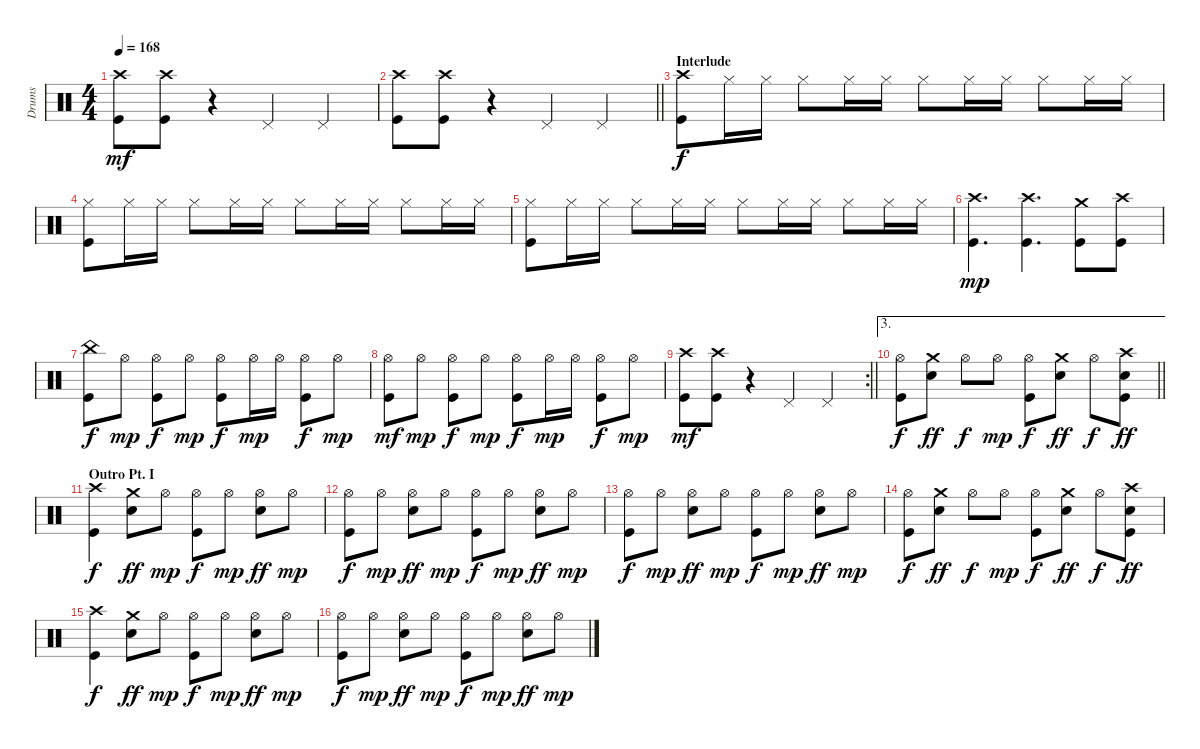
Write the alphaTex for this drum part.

\track ("Drums" "Drums") {instrument percussion}
\staff {score}
\articulation defaults
\ts (4 4)
\tempo 168
\clef neutral
\ks c
("Crash high (hit)" "Kick (hit)").8{dy mf} ("Crash high (hit)" "Kick (hit)").8 r.4 "Pedal Hi-Hat (hit)".4 "Pedal Hi-Hat (hit)".4 |
\barLineRight lightlight
("Crash high (hit)" "Kick (hit)").8 ("Crash high (hit)" "Kick (hit)").8 r.4 "Pedal Hi-Hat (hit)".4 "Pedal Hi-Hat (hit)".4 |
\section ("" "Interlude")
("Crash high (hit)" "Kick (hit)").8{dy f} "Hi-Hat (closed)".16 "Hi-Hat (closed)".16 "Hi-Hat (closed)".8 "Hi-Hat (closed)".16 "Hi-Hat (closed)".16 "Hi-Hat (closed)".8 "Hi-Hat (closed)".16 "Hi-Hat (closed)".16 "Hi-Hat (closed)".8 "Hi-Hat (closed)".16 "Hi-Hat (closed)".16 |
("Hi-Hat (closed)" "Kick (hit)").8 "Hi-Hat (closed)".16 "Hi-Hat (closed)".16 "Hi-Hat (closed)".8 "Hi-Hat (closed)".16 "Hi-Hat (closed)".16 "Hi-Hat (closed)".8 "Hi-Hat (closed)".16 "Hi-Hat (closed)".16 "Hi-Hat (closed)".8 "Hi-Hat (closed)".16 "Hi-Hat (closed)".16 |
("Hi-Hat (closed)" "Kick (hit)").8 "Hi-Hat (closed)".16 "Hi-Hat (closed)".16 "Hi-Hat (closed)".8 "Hi-Hat (closed)".16 "Hi-Hat (closed)".16 "Hi-Hat (closed)".8 "Hi-Hat (closed)".16 "Hi-Hat (closed)".16 "Hi-Hat (closed)".8 "Hi-Hat (closed)".16 "Hi-Hat (closed)".16 |
("Crash high (hit)" "Kick (hit)").4{d dy mp} ("Crash high (hit)" "Kick (hit)").4{d} ("Crash medium (hit)" "Kick (hit)").8 ("Crash high (hit)" "Kick (hit)").8 |
("China (hit)" "Kick (hit)").8{dy f} "Hi-Hat (open)".8{dy mp} ("Hi-Hat (open)" "Kick (hit)").8{dy f} "Hi-Hat (open)".8{dy mp} ("Hi-Hat (open)" "Kick (hit)").8{dy f} "Hi-Hat (open)".16{dy mp} "Hi-Hat (open)".16 ("Hi-Hat (open)" "Kick (hit)").8{dy f} "Hi-Hat (open)".8{dy mp} |
("Hi-Hat (open)" "Kick (hit)").8{dy mf} "Hi-Hat (open)".8{dy mp} ("Hi-Hat (open)" "Kick (hit)").8{dy f} "Hi-Hat (open)".8{dy mp} ("Hi-Hat (open)" "Kick (hit)").8{dy f} "Hi-Hat (open)".16{dy mp} "Hi-Hat (open)".16 ("Hi-Hat (open)" "Kick (hit)").8{dy f} "Hi-Hat (open)".8{dy mp} |
\rc 2
\barLineRight lightlight
("Crash high (hit)" "Kick (hit)").8{dy mf} ("Crash high (hit)" "Kick (hit)").8 r.4 "Pedal Hi-Hat (hit)".4 "Pedal Hi-Hat (hit)".4 |
\ae 3
\barLineRight lightlight
("Hi-Hat (open)" "Kick (hit)").8{dy f} ("Crash medium (hit)" "Snare (hit) 2").8{dy ff} "Hi-Hat (open)".8{dy f} "Hi-Hat (open)".8{dy mp} ("Hi-Hat (open)" "Kick (hit)").8{dy f} ("Crash medium (hit)" "Snare (hit) 2").8{dy ff} "Hi-Hat (open)".8{dy f} ("Crash high (hit)" "Snare (hit) 2" "Kick (hit)").8{dy ff} |
\section ("" "Outro Pt. I")
("Crash high (hit)" "Kick (hit)").4{dy f} ("Crash medium (hit)" "Snare (hit) 2").8{dy ff} "Hi-Hat (open)".8{dy mp} ("Hi-Hat (open)" "Kick (hit)").8{dy f} "Hi-Hat (open)".8{dy mp} ("Hi-Hat (open)" "Snare (hit) 2").8{dy ff} "Hi-Hat (open)".8{dy mp} |
("Hi-Hat (open)" "Kick (hit)").8{dy f} "Hi-Hat (open)".8{dy mp} ("Hi-Hat (open)" "Snare (hit) 2").8{dy ff} "Hi-Hat (open)".8{dy mp} ("Hi-Hat (open)" "Kick (hit)").8{dy f} "Hi-Hat (open)".8{dy mp} ("Hi-Hat (open)" "Snare (hit) 2").8{dy ff} "Hi-Hat (open)".8{dy mp} |
("Hi-Hat (open)" "Kick (hit)").8{dy f} "Hi-Hat (open)".8{dy mp} ("Hi-Hat (open)" "Snare (hit) 2").8{dy ff} "Hi-Hat (open)".8{dy mp} ("Hi-Hat (open)" "Kick (hit)").8{dy f} "Hi-Hat (open)".8{dy mp} ("Hi-Hat (open)" "Snare (hit) 2").8{dy ff} "Hi-Hat (open)".8{dy mp} |
("Hi-Hat (open)" "Kick (hit)").8{dy f} ("Crash medium (hit)" "Snare (hit) 2").8{dy ff} "Hi-Hat (open)".8{dy f} "Hi-Hat (open)".8{dy mp} ("Hi-Hat (open)" "Kick (hit)").8{dy f} ("Crash medium (hit)" "Snare (hit) 2").8{dy ff} "Hi-Hat (open)".8{dy f} ("Crash high (hit)" "Snare (hit) 2" "Kick (hit)").8{dy ff} |
("Crash high (hit)" "Kick (hit)").4{dy f} ("Crash medium (hit)" "Snare (hit) 2").8{dy ff} "Hi-Hat (open)".8{dy mp} ("Hi-Hat (open)" "Kick (hit)").8{dy f} "Hi-Hat (open)".8{dy mp} ("Hi-Hat (open)" "Snare (hit) 2").8{dy ff} "Hi-Hat (open)".8{dy mp} |
("Hi-Hat (open)" "Kick (hit)").8{dy f} "Hi-Hat (open)".8{dy mp} ("Hi-Hat (open)" "Snare (hit) 2").8{dy ff} "Hi-Hat (open)".8{dy mp} ("Hi-Hat (open)" "Kick (hit)").8{dy f} "Hi-Hat (open)".8{dy mp} ("Hi-Hat (open)" "Snare (hit) 2").8{dy ff} "Hi-Hat (open)".8{dy mp}
